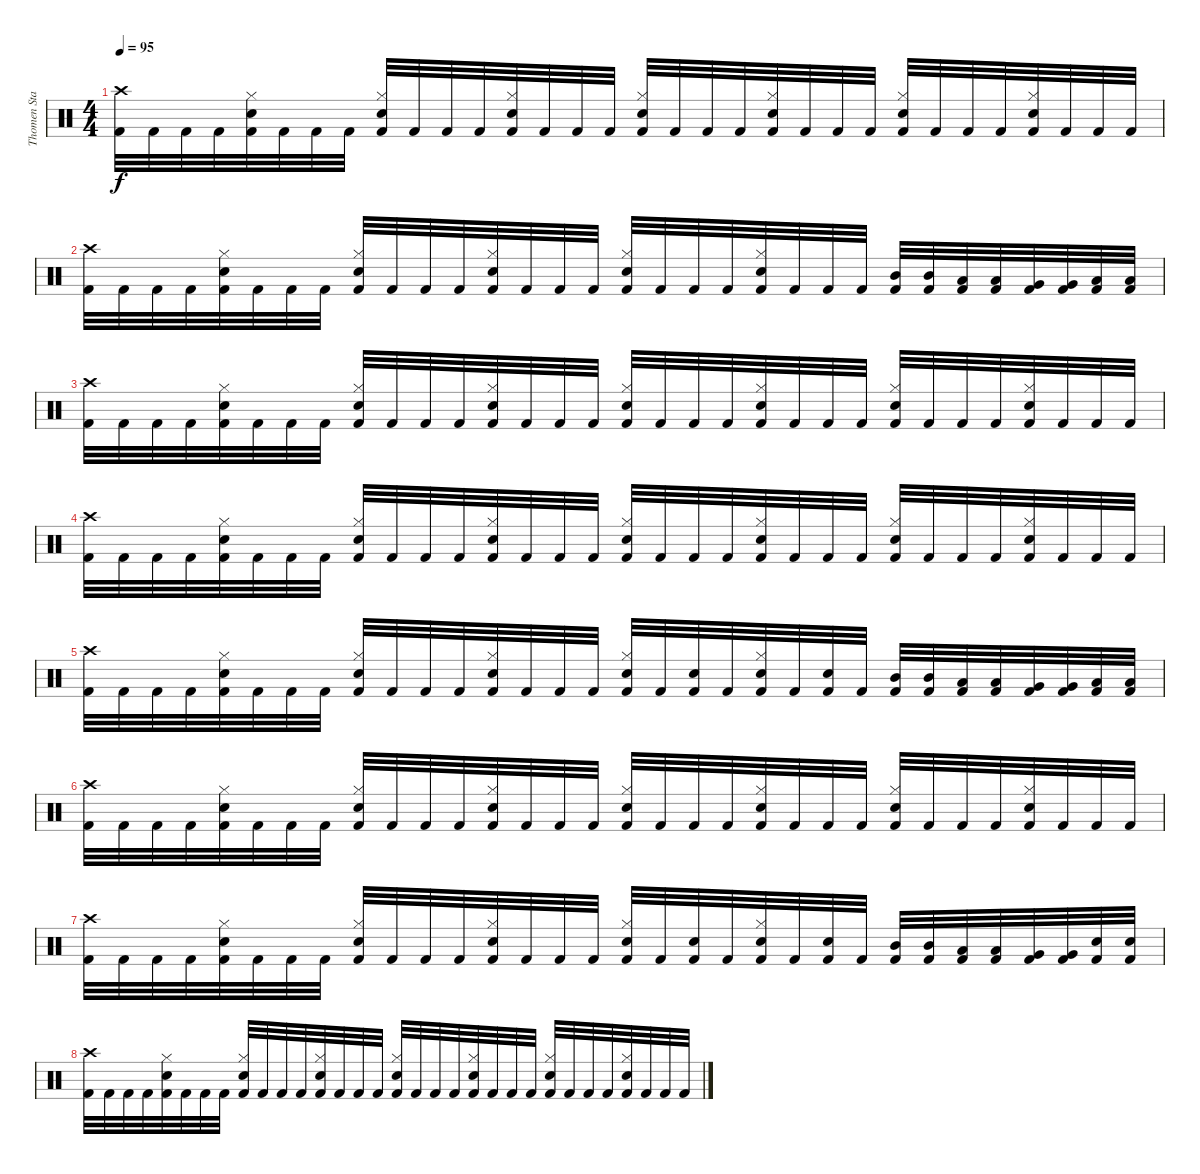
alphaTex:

\track ("Thomen Stauch" "Thomen Sta") {instrument percussion}
\staff {score}
\articulation defaults
\ts (4 4)
\tempo 95
\clef neutral
\ks c
("Crash high (hit)" "Kick (hit) 2").32{dy f} "Kick (hit) 2".32 "Kick (hit) 2".32 "Kick (hit) 2".32 ("Hi-Hat (closed)" "Snare (hit) 2" "Kick (hit) 2").32 "Kick (hit) 2".32 "Kick (hit) 2".32 "Kick (hit) 2".32 ("Hi-Hat (closed)" "Snare (hit) 2" "Kick (hit) 2").32 "Kick (hit) 2".32 "Kick (hit) 2".32 "Kick (hit) 2".32 ("Hi-Hat (closed)" "Snare (hit) 2" "Kick (hit) 2").32 "Kick (hit) 2".32 "Kick (hit) 2".32 "Kick (hit) 2".32 ("Hi-Hat (closed)" "Snare (hit) 2" "Kick (hit) 2").32 "Kick (hit) 2".32 "Kick (hit) 2".32 "Kick (hit) 2".32 ("Hi-Hat (closed)" "Snare (hit) 2" "Kick (hit) 2").32 "Kick (hit) 2".32 "Kick (hit) 2".32 "Kick (hit) 2".32 ("Hi-Hat (closed)" "Snare (hit) 2" "Kick (hit) 2").32 "Kick (hit) 2".32 "Kick (hit) 2".32 "Kick (hit) 2".32 ("Hi-Hat (closed)" "Snare (hit) 2" "Kick (hit) 2").32 "Kick (hit) 2".32 "Kick (hit) 2".32 "Kick (hit) 2".32 |
("Crash high (hit)" "Kick (hit) 2").32 "Kick (hit) 2".32 "Kick (hit) 2".32 "Kick (hit) 2".32 ("Hi-Hat (closed)" "Snare (hit) 2" "Kick (hit) 2").32 "Kick (hit) 2".32 "Kick (hit) 2".32 "Kick (hit) 2".32 ("Hi-Hat (closed)" "Snare (hit) 2" "Kick (hit) 2").32 "Kick (hit) 2".32 "Kick (hit) 2".32 "Kick (hit) 2".32 ("Hi-Hat (closed)" "Snare (hit) 2" "Kick (hit) 2").32 "Kick (hit) 2".32 "Kick (hit) 2".32 "Kick (hit) 2".32 ("Hi-Hat (closed)" "Snare (hit) 2" "Kick (hit) 2").32 "Kick (hit) 2".32 "Kick (hit) 2".32 "Kick (hit) 2".32 ("Hi-Hat (closed)" "Snare (hit) 2" "Kick (hit) 2").32 "Kick (hit) 2".32 "Kick (hit) 2".32 "Kick (hit) 2".32 ("Mid Tom (hit)" "Kick (hit) 2").32 ("Mid Tom (hit)" "Kick (hit) 2").32 ("Low Tom (hit)" "Kick (hit) 2").32 ("Low Tom (hit)" "Kick (hit) 2").32 ("Very Low Tom (hit)" "Kick (hit) 2").32 ("Very Low Tom (hit)" "Kick (hit) 2").32 ("Low Floor Tom (hit)" "Kick (hit) 2").32 ("Low Floor Tom (hit)" "Kick (hit) 2").32 |
("Crash high (hit)" "Kick (hit) 2").32 "Kick (hit) 2".32 "Kick (hit) 2".32 "Kick (hit) 2".32 ("Hi-Hat (closed)" "Snare (hit) 2" "Kick (hit) 2").32 "Kick (hit) 2".32 "Kick (hit) 2".32 "Kick (hit) 2".32 ("Hi-Hat (closed)" "Snare (hit) 2" "Kick (hit) 2").32 "Kick (hit) 2".32 "Kick (hit) 2".32 "Kick (hit) 2".32 ("Hi-Hat (closed)" "Snare (hit) 2" "Kick (hit) 2").32 "Kick (hit) 2".32 "Kick (hit) 2".32 "Kick (hit) 2".32 ("Hi-Hat (closed)" "Snare (hit) 2" "Kick (hit) 2").32 "Kick (hit) 2".32 "Kick (hit) 2".32 "Kick (hit) 2".32 ("Hi-Hat (closed)" "Snare (hit) 2" "Kick (hit) 2").32 "Kick (hit) 2".32 "Kick (hit) 2".32 "Kick (hit) 2".32 ("Hi-Hat (closed)" "Snare (hit) 2" "Kick (hit) 2").32 "Kick (hit) 2".32 "Kick (hit) 2".32 "Kick (hit) 2".32 ("Hi-Hat (closed)" "Snare (hit) 2" "Kick (hit) 2").32 "Kick (hit) 2".32 "Kick (hit) 2".32 "Kick (hit) 2".32 |
("Crash high (hit)" "Kick (hit) 2").32 "Kick (hit) 2".32 "Kick (hit) 2".32 "Kick (hit) 2".32 ("Hi-Hat (closed)" "Snare (hit) 2" "Kick (hit) 2").32 "Kick (hit) 2".32 "Kick (hit) 2".32 "Kick (hit) 2".32 ("Hi-Hat (closed)" "Snare (hit) 2" "Kick (hit) 2").32 "Kick (hit) 2".32 "Kick (hit) 2".32 "Kick (hit) 2".32 ("Hi-Hat (closed)" "Snare (hit) 2" "Kick (hit) 2").32 "Kick (hit) 2".32 "Kick (hit) 2".32 "Kick (hit) 2".32 ("Hi-Hat (closed)" "Snare (hit) 2" "Kick (hit) 2").32 "Kick (hit) 2".32 "Kick (hit) 2".32 "Kick (hit) 2".32 ("Hi-Hat (closed)" "Snare (hit) 2" "Kick (hit) 2").32 "Kick (hit) 2".32 "Kick (hit) 2".32 "Kick (hit) 2".32 ("Hi-Hat (closed)" "Snare (hit) 2" "Kick (hit) 2").32 "Kick (hit) 2".32 "Kick (hit) 2".32 "Kick (hit) 2".32 ("Hi-Hat (closed)" "Snare (hit) 2" "Kick (hit) 2").32 "Kick (hit) 2".32 "Kick (hit) 2".32 "Kick (hit) 2".32 |
("Crash high (hit)" "Kick (hit) 2").32 "Kick (hit) 2".32 "Kick (hit) 2".32 "Kick (hit) 2".32 ("Hi-Hat (closed)" "Snare (hit) 2" "Kick (hit) 2").32 "Kick (hit) 2".32 "Kick (hit) 2".32 "Kick (hit) 2".32 ("Hi-Hat (closed)" "Snare (hit) 2" "Kick (hit) 2").32 "Kick (hit) 2".32 "Kick (hit) 2".32 "Kick (hit) 2".32 ("Hi-Hat (closed)" "Snare (hit) 2" "Kick (hit) 2").32 "Kick (hit) 2".32 "Kick (hit) 2".32 "Kick (hit) 2".32 ("Hi-Hat (closed)" "Snare (hit) 2" "Kick (hit) 2").32 "Kick (hit) 2".32 ("Snare (hit) 2" "Kick (hit) 2").32 "Kick (hit) 2".32 ("Hi-Hat (closed)" "Snare (hit) 2" "Kick (hit) 2").32 "Kick (hit) 2".32 ("Snare (hit) 2" "Kick (hit) 2").32 "Kick (hit) 2".32 ("Mid Tom (hit)" "Kick (hit) 2").32 ("Mid Tom (hit)" "Kick (hit) 2").32 ("Low Tom (hit)" "Kick (hit) 2").32 ("Low Tom (hit)" "Kick (hit) 2").32 ("Very Low Tom (hit)" "Kick (hit) 2").32 ("Very Low Tom (hit)" "Kick (hit) 2").32 ("Low Floor Tom (hit)" "Kick (hit) 2").32 ("Low Floor Tom (hit)" "Kick (hit) 2").32 |
("Crash high (hit)" "Kick (hit) 2").32 "Kick (hit) 2".32 "Kick (hit) 2".32 "Kick (hit) 2".32 ("Hi-Hat (closed)" "Snare (hit) 2" "Kick (hit) 2").32 "Kick (hit) 2".32 "Kick (hit) 2".32 "Kick (hit) 2".32 ("Hi-Hat (closed)" "Snare (hit) 2" "Kick (hit) 2").32 "Kick (hit) 2".32 "Kick (hit) 2".32 "Kick (hit) 2".32 ("Hi-Hat (closed)" "Snare (hit) 2" "Kick (hit) 2").32 "Kick (hit) 2".32 "Kick (hit) 2".32 "Kick (hit) 2".32 ("Hi-Hat (closed)" "Snare (hit) 2" "Kick (hit) 2").32 "Kick (hit) 2".32 "Kick (hit) 2".32 "Kick (hit) 2".32 ("Hi-Hat (closed)" "Snare (hit) 2" "Kick (hit) 2").32 "Kick (hit) 2".32 "Kick (hit) 2".32 "Kick (hit) 2".32 ("Hi-Hat (closed)" "Snare (hit) 2" "Kick (hit) 2").32 "Kick (hit) 2".32 "Kick (hit) 2".32 "Kick (hit) 2".32 ("Hi-Hat (closed)" "Snare (hit) 2" "Kick (hit) 2").32 "Kick (hit) 2".32 "Kick (hit) 2".32 "Kick (hit) 2".32 |
("Crash high (hit)" "Kick (hit) 2").32 "Kick (hit) 2".32 "Kick (hit) 2".32 "Kick (hit) 2".32 ("Hi-Hat (closed)" "Snare (hit) 2" "Kick (hit) 2").32 "Kick (hit) 2".32 "Kick (hit) 2".32 "Kick (hit) 2".32 ("Hi-Hat (closed)" "Snare (hit) 2" "Kick (hit) 2").32 "Kick (hit) 2".32 "Kick (hit) 2".32 "Kick (hit) 2".32 ("Hi-Hat (closed)" "Snare (hit) 2" "Kick (hit) 2").32 "Kick (hit) 2".32 "Kick (hit) 2".32 "Kick (hit) 2".32 ("Hi-Hat (closed)" "Snare (hit) 2" "Kick (hit) 2").32 "Kick (hit) 2".32 ("Snare (hit) 2" "Kick (hit) 2").32 "Kick (hit) 2".32 ("Hi-Hat (closed)" "Snare (hit) 2" "Kick (hit) 2").32 "Kick (hit) 2".32 ("Snare (hit) 2" "Kick (hit) 2").32 "Kick (hit) 2".32 ("Mid Tom (hit)" "Kick (hit) 2").32 ("Mid Tom (hit)" "Kick (hit) 2").32 ("Low Tom (hit)" "Kick (hit) 2").32 ("Low Tom (hit)" "Kick (hit) 2").32 ("Very Low Tom (hit)" "Kick (hit) 2").32 ("Very Low Tom (hit)" "Kick (hit) 2").32 ("Snare (hit) 2" "Kick (hit) 2").32 ("Snare (hit) 2" "Kick (hit) 2").32 |
("Crash high (hit)" "Kick (hit) 2").32 "Kick (hit) 2".32 "Kick (hit) 2".32 "Kick (hit) 2".32 ("Hi-Hat (closed)" "Snare (hit) 2" "Kick (hit) 2").32 "Kick (hit) 2".32 "Kick (hit) 2".32 "Kick (hit) 2".32 ("Hi-Hat (closed)" "Snare (hit) 2" "Kick (hit) 2").32 "Kick (hit) 2".32 "Kick (hit) 2".32 "Kick (hit) 2".32 ("Hi-Hat (closed)" "Snare (hit) 2" "Kick (hit) 2").32 "Kick (hit) 2".32 "Kick (hit) 2".32 "Kick (hit) 2".32 ("Hi-Hat (closed)" "Snare (hit) 2" "Kick (hit) 2").32 "Kick (hit) 2".32 "Kick (hit) 2".32 "Kick (hit) 2".32 ("Hi-Hat (closed)" "Snare (hit) 2" "Kick (hit) 2").32 "Kick (hit) 2".32 "Kick (hit) 2".32 "Kick (hit) 2".32 ("Hi-Hat (closed)" "Snare (hit) 2" "Kick (hit) 2").32 "Kick (hit) 2".32 "Kick (hit) 2".32 "Kick (hit) 2".32 ("Hi-Hat (closed)" "Snare (hit) 2" "Kick (hit) 2").32 "Kick (hit) 2".32 "Kick (hit) 2".32 "Kick (hit) 2".32
